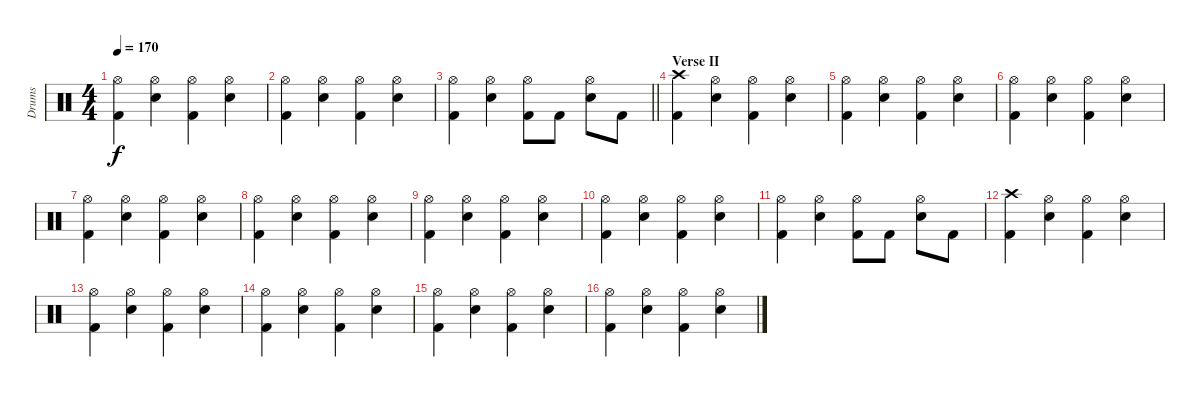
\track ("Drums" "Drums") {instrument percussion}
\staff {score}
\articulation defaults
\ts (4 4)
\tempo 170
\clef neutral
\ks c
("Hi-Hat (open)" "Kick (hit) 2").4{dy f} ("Hi-Hat (open)" "Snare (hit) 2").4 ("Hi-Hat (open)" "Kick (hit) 2").4 ("Hi-Hat (open)" "Snare (hit) 2").4 |
("Hi-Hat (open)" "Kick (hit) 2").4 ("Hi-Hat (open)" "Snare (hit) 2").4 ("Hi-Hat (open)" "Kick (hit) 2").4 ("Hi-Hat (open)" "Snare (hit) 2").4 |
\barLineRight lightlight
("Hi-Hat (open)" "Kick (hit) 2").4 ("Hi-Hat (open)" "Snare (hit) 2").4 ("Hi-Hat (open)" "Kick (hit) 2").8 "Kick (hit) 2".8 ("Hi-Hat (open)" "Snare (hit) 2").8 "Kick (hit) 2".8 |
\section ("" "Verse II")
("Crash high (hit)" "Kick (hit) 2").4 ("Hi-Hat (open)" "Snare (hit) 2").4 ("Hi-Hat (open)" "Kick (hit) 2").4 ("Hi-Hat (open)" "Snare (hit) 2").4 |
("Hi-Hat (open)" "Kick (hit) 2").4 ("Hi-Hat (open)" "Snare (hit) 2").4 ("Hi-Hat (open)" "Kick (hit) 2").4 ("Hi-Hat (open)" "Snare (hit) 2").4 |
("Hi-Hat (open)" "Kick (hit) 2").4 ("Hi-Hat (open)" "Snare (hit) 2").4 ("Hi-Hat (open)" "Kick (hit) 2").4 ("Hi-Hat (open)" "Snare (hit) 2").4 |
("Hi-Hat (open)" "Kick (hit) 2").4 ("Hi-Hat (open)" "Snare (hit) 2").4 ("Hi-Hat (open)" "Kick (hit) 2").4 ("Hi-Hat (open)" "Snare (hit) 2").4 |
("Hi-Hat (open)" "Kick (hit) 2").4 ("Hi-Hat (open)" "Snare (hit) 2").4 ("Hi-Hat (open)" "Kick (hit) 2").4 ("Hi-Hat (open)" "Snare (hit) 2").4 |
("Hi-Hat (open)" "Kick (hit) 2").4 ("Hi-Hat (open)" "Snare (hit) 2").4 ("Hi-Hat (open)" "Kick (hit) 2").4 ("Hi-Hat (open)" "Snare (hit) 2").4 |
("Hi-Hat (open)" "Kick (hit) 2").4 ("Hi-Hat (open)" "Snare (hit) 2").4 ("Hi-Hat (open)" "Kick (hit) 2").4 ("Hi-Hat (open)" "Snare (hit) 2").4 |
("Hi-Hat (open)" "Kick (hit) 2").4 ("Hi-Hat (open)" "Snare (hit) 2").4 ("Hi-Hat (open)" "Kick (hit) 2").8 "Kick (hit) 2".8 ("Hi-Hat (open)" "Snare (hit) 2").8 "Kick (hit) 2".8 |
("Crash high (hit)" "Kick (hit) 2").4 ("Hi-Hat (open)" "Snare (hit) 2").4 ("Hi-Hat (open)" "Kick (hit) 2").4 ("Hi-Hat (open)" "Snare (hit) 2").4 |
("Hi-Hat (open)" "Kick (hit) 2").4 ("Hi-Hat (open)" "Snare (hit) 2").4 ("Hi-Hat (open)" "Kick (hit) 2").4 ("Hi-Hat (open)" "Snare (hit) 2").4 |
("Hi-Hat (open)" "Kick (hit) 2").4 ("Hi-Hat (open)" "Snare (hit) 2").4 ("Hi-Hat (open)" "Kick (hit) 2").4 ("Hi-Hat (open)" "Snare (hit) 2").4 |
("Hi-Hat (open)" "Kick (hit) 2").4 ("Hi-Hat (open)" "Snare (hit) 2").4 ("Hi-Hat (open)" "Kick (hit) 2").4 ("Hi-Hat (open)" "Snare (hit) 2").4 |
("Hi-Hat (open)" "Kick (hit) 2").4 ("Hi-Hat (open)" "Snare (hit) 2").4 ("Hi-Hat (open)" "Kick (hit) 2").4 ("Hi-Hat (open)" "Snare (hit) 2").4
